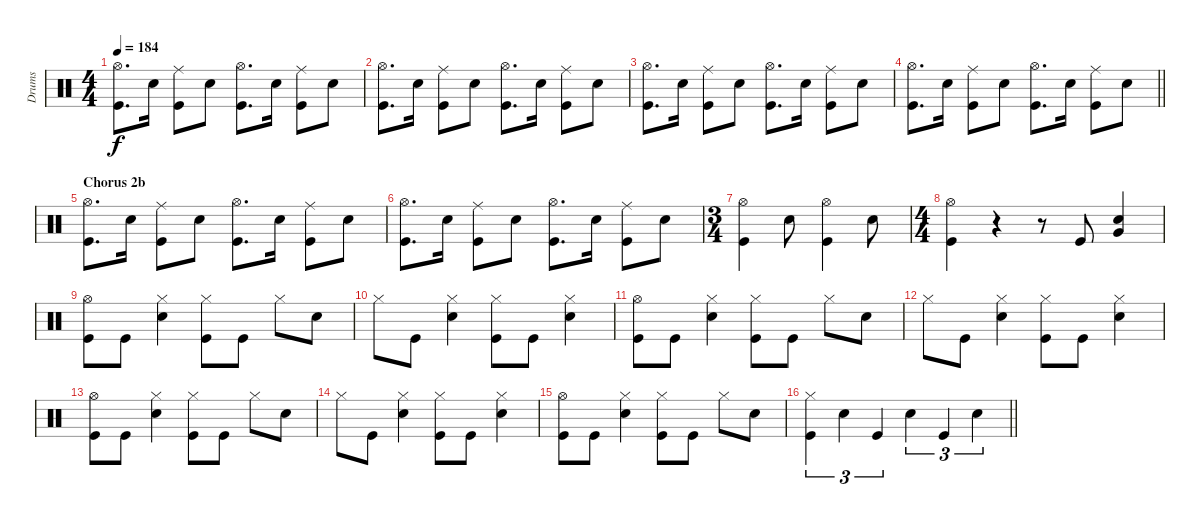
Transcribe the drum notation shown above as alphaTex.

\track (" Drums" " Drums") {instrument percussion}
\staff {score}
\articulation defaults
\ts (4 4)
\tempo 184
\clef neutral
\ks c
("Kick (hit)" "Hi-Hat (open)").8{d dy f} "Snare (hit) 2".16 ("Kick (hit)" "Ride (middle)").8 "Snare (hit) 2".8 ("Kick (hit)" "Hi-Hat (open)").8{d} "Snare (hit) 2".16 ("Kick (hit)" "Ride (middle)").8 "Snare (hit) 2".8 |
("Kick (hit)" "Hi-Hat (open)").8{d} "Snare (hit) 2".16 ("Kick (hit)" "Ride (middle)").8 "Snare (hit) 2".8 ("Kick (hit)" "Hi-Hat (open)").8{d} "Snare (hit) 2".16 ("Kick (hit)" "Ride (middle)").8 "Snare (hit) 2".8 |
("Kick (hit)" "Hi-Hat (open)").8{d} "Snare (hit) 2".16 ("Kick (hit)" "Ride (middle)").8 "Snare (hit) 2".8 ("Kick (hit)" "Hi-Hat (open)").8{d} "Snare (hit) 2".16 ("Kick (hit)" "Ride (middle)").8 "Snare (hit) 2".8 |
\barLineRight lightlight
("Kick (hit)" "Hi-Hat (open)").8{d} "Snare (hit) 2".16 ("Kick (hit)" "Ride (middle)").8 "Snare (hit) 2".8 ("Kick (hit)" "Hi-Hat (open)").8{d} "Snare (hit) 2".16 ("Kick (hit)" "Ride (middle)").8 "Snare (hit) 2".8 |
\section ("" "Chorus 2b")
("Kick (hit)" "Hi-Hat (open)").8{d} "Snare (hit) 2".16 ("Kick (hit)" "Ride (middle)").8 "Snare (hit) 2".8 ("Kick (hit)" "Hi-Hat (open)").8{d} "Snare (hit) 2".16 ("Kick (hit)" "Ride (middle)").8 "Snare (hit) 2".8 |
("Kick (hit)" "Hi-Hat (open)").8{d} "Snare (hit) 2".16 ("Kick (hit)" "Ride (middle)").8 "Snare (hit) 2".8 ("Kick (hit)" "Hi-Hat (open)").8{d} "Snare (hit) 2".16 ("Kick (hit)" "Ride (middle)").8 "Snare (hit) 2".8 |
\ts (3 4)
("Kick (hit)" "Hi-Hat (open)").4 "Snare (hit) 2".8 ("Kick (hit)" "Hi-Hat (open)").4 "Snare (hit) 2".8 |
\ts (4 4)
("Kick (hit)" "Hi-Hat (open)").4 r.4 r.8 "Kick (hit)".8 ("Snare (hit) 2" "Very Low Tom (hit)").4 |
("Hi-Hat (open)" "Kick (hit)").8 "Kick (hit)".8 ("Snare (hit) 2" "Hi-Hat (closed)").4 ("Kick (hit)" "Hi-Hat (closed)").8 "Kick (hit)".8 "Hi-Hat (closed)".8 "Snare (hit) 2".8 |
"Hi-Hat (closed)".8 "Kick (hit)".8 ("Snare (hit) 2" "Hi-Hat (closed)").4 ("Kick (hit)" "Hi-Hat (closed)").8 "Kick (hit)".8 ("Snare (hit) 2" "Hi-Hat (closed)").4 |
("Kick (hit)" "Hi-Hat (open)").8 "Kick (hit)".8 ("Snare (hit) 2" "Hi-Hat (closed)").4 ("Kick (hit)" "Hi-Hat (closed)").8 "Kick (hit)".8 "Hi-Hat (closed)".8 "Snare (hit) 2".8 |
"Hi-Hat (closed)".8 "Kick (hit)".8 ("Snare (hit) 2" "Hi-Hat (closed)").4 ("Kick (hit)" "Hi-Hat (closed)").8 "Kick (hit)".8 ("Snare (hit) 2" "Hi-Hat (closed)").4 |
("Kick (hit)" "Hi-Hat (open)").8 "Kick (hit)".8 ("Snare (hit) 2" "Hi-Hat (closed)").4 ("Kick (hit)" "Hi-Hat (closed)").8 "Kick (hit)".8 "Hi-Hat (closed)".8 "Snare (hit) 2".8 |
"Hi-Hat (closed)".8 "Kick (hit)".8 ("Snare (hit) 2" "Hi-Hat (closed)").4 ("Kick (hit)" "Hi-Hat (closed)").8 "Kick (hit)".8 ("Snare (hit) 2" "Hi-Hat (closed)").4 |
("Kick (hit)" "Hi-Hat (open)").8 "Kick (hit)".8 ("Snare (hit) 2" "Hi-Hat (closed)").4 ("Kick (hit)" "Hi-Hat (closed)").8 "Kick (hit)".8 "Hi-Hat (closed)".8 "Snare (hit) 2".8 |
\barLineRight lightlight
("Hi-Hat (closed)" "Kick (hit)").4{tu (3 2)} "Snare (hit) 2".4{tu (3 2)} "Kick (hit)".4{tu (3 2)} "Snare (hit) 2".4{tu (3 2)} "Kick (hit)".4{tu (3 2)} "Snare (hit) 2".4{tu (3 2)}
